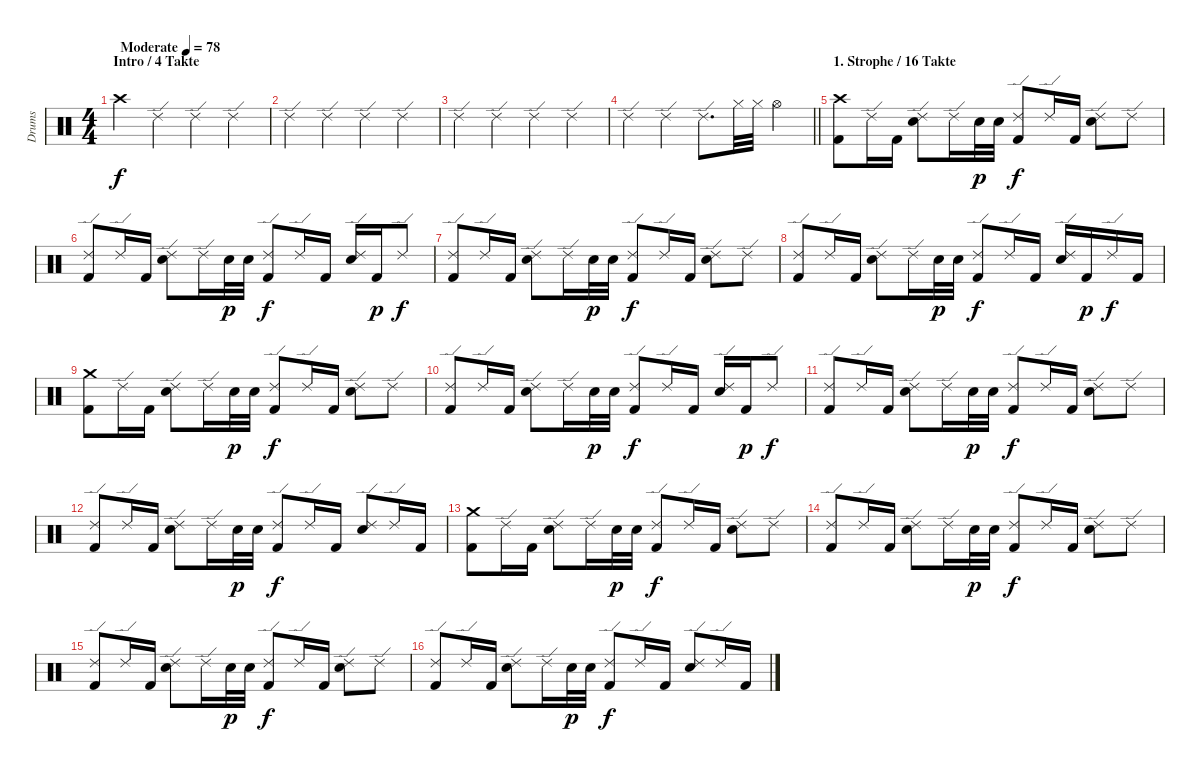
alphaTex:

\track ("Drums" "Drums") {instrument percussion}
\staff {score}
\articulation defaults
\ts (4 4)
\section ("" "Intro / 4 Takte")
\tempo (78 "Moderate")
\clef neutral
\ks c "Crash high (hit)".4{dy f} "Ride (edge) 2".4 "Ride (edge) 2".4 "Ride (edge) 2".4
|
"Ride (edge) 2".4 "Ride (edge) 2".4 "Ride (edge) 2".4 "Ride (edge) 2".4 |
"Ride (edge) 2".4 "Ride (edge) 2".4 "Ride (edge) 2".4 "Ride (edge) 2".4 |
\barLineRight lightlight "Ride (edge) 2".4 "Ride (edge) 2".4 "Ride (edge) 2".8{d} "Hi-Hat (closed)".32 "Hi-Hat (closed)".32 "Hi-Hat (open)".4
|
\section ("" "1. Strophe / 16 Takte")
("Crash high (hit)" "Kick (hit) 2").8 "Ride (edge) 2".16 "Kick (hit) 2".16 ("Ride (edge) 2" "Electric Snare (hit)").8 "Ride (edge) 2".16 "Electric Snare (hit)".32{dy p} "Electric Snare (hit)".32 ("Ride (edge) 2" "Kick (hit) 2").8{dy f} "Ride (edge) 2".16 "Kick (hit) 2".16 ("Ride (edge) 2" "Electric Snare (hit)").8 "Ride (edge) 2".8 |
("Ride (edge) 2" "Kick (hit) 2").8 "Ride (edge) 2".16 "Kick (hit) 2".16 ("Ride (edge) 2" "Electric Snare (hit)").8 "Ride (edge) 2".16 "Electric Snare (hit)".32{dy p} "Electric Snare (hit)".32 ("Ride (edge) 2" "Kick (hit) 2").8{dy f} "Ride (edge) 2".16 "Kick (hit) 2".16 ("Ride (edge) 2" "Electric Snare (hit)").16 "Kick (hit) 2".16{dy p} "Ride (edge) 2".8{dy f} |
("Ride (edge) 2" "Kick (hit) 2").8 "Ride (edge) 2".16 "Kick (hit) 2".16 ("Ride (edge) 2" "Electric Snare (hit)").8 "Ride (edge) 2".16 "Electric Snare (hit)".32{dy p} "Electric Snare (hit)".32 ("Ride (edge) 2" "Kick (hit) 2").8{dy f} "Ride (edge) 2".16 "Kick (hit) 2".16 ("Ride (edge) 2" "Electric Snare (hit)").8 "Ride (edge) 2".8 |
("Ride (edge) 2" "Kick (hit) 2").8 "Ride (edge) 2".16 "Kick (hit) 2".16 ("Ride (edge) 2" "Electric Snare (hit)").8 "Ride (edge) 2".16 "Electric Snare (hit)".32{dy p} "Electric Snare (hit)".32 ("Ride (edge) 2" "Kick (hit) 2").8{dy f} "Ride (edge) 2".16 "Kick (hit) 2".16 ("Ride (edge) 2" "Electric Snare (hit)").16 "Kick (hit) 2".16{dy p} "Ride (edge) 2".16{dy f} "Kick (hit) 2".16 |
("Crash medium (hit)" "Kick (hit) 2").8 "Ride (edge) 2".16 "Kick (hit) 2".16 ("Ride (edge) 2" "Electric Snare (hit)").8 "Ride (edge) 2".16 "Electric Snare (hit)".32{dy p} "Electric Snare (hit)".32 ("Ride (edge) 2" "Kick (hit) 2").8{dy f} "Ride (edge) 2".16 "Kick (hit) 2".16 ("Ride (edge) 2" "Electric Snare (hit)").8 "Ride (edge) 2".8 |
("Ride (edge) 2" "Kick (hit) 2").8 "Ride (edge) 2".16 "Kick (hit) 2".16 ("Ride (edge) 2" "Electric Snare (hit)").8 "Ride (edge) 2".16 "Electric Snare (hit)".32{dy p} "Electric Snare (hit)".32 ("Ride (edge) 2" "Kick (hit) 2").8{dy f} "Ride (edge) 2".16 "Kick (hit) 2".16 ("Ride (edge) 2" "Electric Snare (hit)").16 "Kick (hit) 2".16{dy p} "Ride (edge) 2".8{dy f} |
("Ride (edge) 2" "Kick (hit) 2").8 "Ride (edge) 2".16 "Kick (hit) 2".16 ("Ride (edge) 2" "Electric Snare (hit)").8 "Ride (edge) 2".16 "Electric Snare (hit)".32{dy p} "Electric Snare (hit)".32 ("Ride (edge) 2" "Kick (hit) 2").8{dy f} "Ride (edge) 2".16 "Kick (hit) 2".16 ("Ride (edge) 2" "Electric Snare (hit)").8 "Ride (edge) 2".8 |
("Ride (edge) 2" "Kick (hit) 2").8 "Ride (edge) 2".16 "Kick (hit) 2".16 ("Ride (edge) 2" "Electric Snare (hit)").8 "Ride (edge) 2".16 "Electric Snare (hit)".32{dy p} "Electric Snare (hit)".32 ("Ride (edge) 2" "Kick (hit) 2").8{dy f} "Ride (edge) 2".16 "Kick (hit) 2".16 ("Ride (edge) 2" "Electric Snare (hit)").8 "Ride (edge) 2".16 "Kick (hit) 2".16 |
("Crash medium (hit)" "Kick (hit) 2").8 "Ride (edge) 2".16 "Kick (hit) 2".16 ("Ride (edge) 2" "Electric Snare (hit)").8 "Ride (edge) 2".16 "Electric Snare (hit)".32{dy p} "Electric Snare (hit)".32 ("Ride (edge) 2" "Kick (hit) 2").8{dy f} "Ride (edge) 2".16 "Kick (hit) 2".16 ("Ride (edge) 2" "Electric Snare (hit)").8 "Ride (edge) 2".8 |
("Ride (edge) 2" "Kick (hit) 2").8 "Ride (edge) 2".16 "Kick (hit) 2".16 ("Ride (edge) 2" "Electric Snare (hit)").8 "Ride (edge) 2".16 "Electric Snare (hit)".32{dy p} "Electric Snare (hit)".32 ("Ride (edge) 2" "Kick (hit) 2").8{dy f} "Ride (edge) 2".16 "Kick (hit) 2".16 ("Ride (edge) 2" "Electric Snare (hit)").8 "Ride (edge) 2".8 |
("Ride (edge) 2" "Kick (hit) 2").8 "Ride (edge) 2".16 "Kick (hit) 2".16 ("Ride (edge) 2" "Electric Snare (hit)").8 "Ride (edge) 2".16 "Electric Snare (hit)".32{dy p} "Electric Snare (hit)".32 ("Ride (edge) 2" "Kick (hit) 2").8{dy f} "Ride (edge) 2".16 "Kick (hit) 2".16 ("Ride (edge) 2" "Electric Snare (hit)").8 "Ride (edge) 2".8 |
("Ride (edge) 2" "Kick (hit) 2").8 "Ride (edge) 2".16 "Kick (hit) 2".16 ("Ride (edge) 2" "Electric Snare (hit)").8 "Ride (edge) 2".16 "Electric Snare (hit)".32{dy p} "Electric Snare (hit)".32 ("Ride (edge) 2" "Kick (hit) 2").8{dy f} "Ride (edge) 2".16 "Kick (hit) 2".16 ("Ride (edge) 2" "Electric Snare (hit)").8 "Ride (edge) 2".16 "Kick (hit) 2".16
